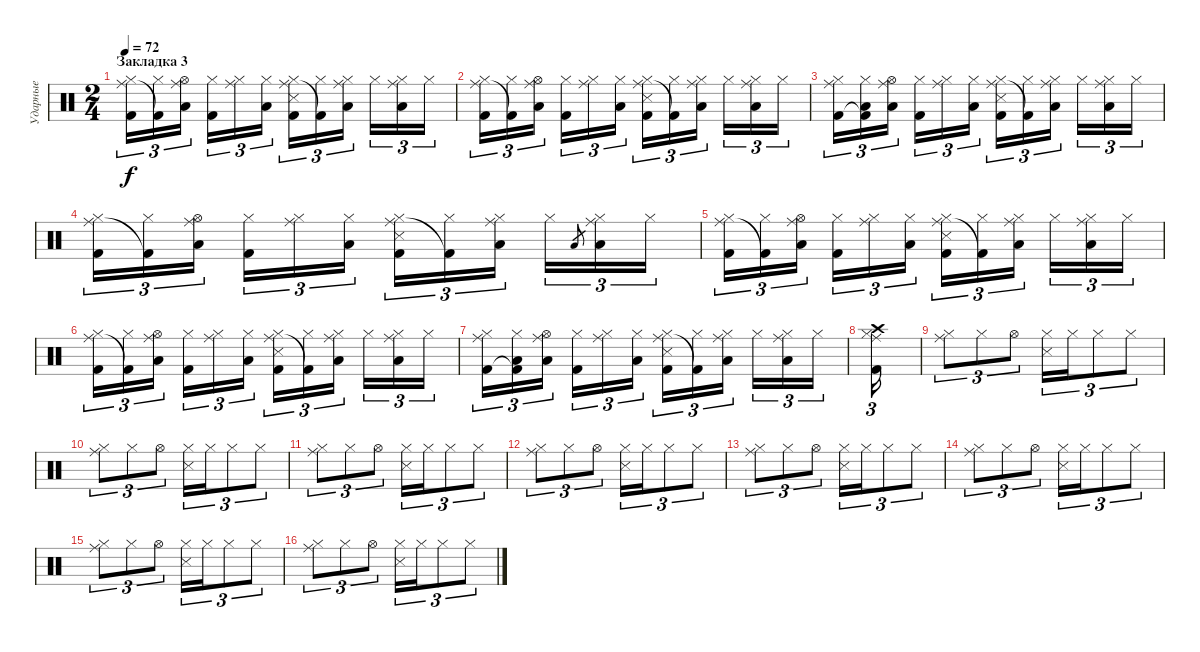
\track ("Ударные" "Ударные") {instrument percussion}
\staff {score}
\articulation defaults
\ts (2 4)
\section ("" "Закладка 3")
\tempo 72
\clef neutral
\ks c
("Hi-Hat (closed)" "Ride (middle)" "Kick (hit) 2").16{tu (3 2) dy f} ("Hi-Hat (closed)" "Kick (hit) 2"{t}).16{tu (3 2)} ("Hi-Hat (open)" "Ride (middle)" "Low Tom (hit)").16{tu (3 2)} ("Hi-Hat (closed)" "Kick (hit) 2").16{tu (3 2)} ("Hi-Hat (closed)" "Ride (middle)").16{tu (3 2)} ("Hi-Hat (closed)" "Low Tom (hit)").16{tu (3 2)} ("Hi-Hat (closed)" "Ride (middle)" "Snare (side stick) 3" "Kick (hit) 2").16{tu (3 2)} ("Hi-Hat (closed)" "Kick (hit) 2"{t}).16{tu (3 2)} ("Hi-Hat (closed)" "Ride (middle)" "Low Tom (hit)").16{tu (3 2)} "Hi-Hat (closed)".16{tu (3 2)} ("Hi-Hat (closed)" "Ride (middle)" "Low Tom (hit)").16{tu (3 2)} "Hi-Hat (closed)".16{tu (3 2)} |
("Hi-Hat (closed)" "Ride (middle)" "Kick (hit) 2").16{tu (3 2)} ("Hi-Hat (closed)" "Kick (hit) 2"{t}).16{tu (3 2)} ("Hi-Hat (open)" "Ride (middle)" "Low Tom (hit)").16{tu (3 2)} ("Hi-Hat (closed)" "Kick (hit) 2").16{tu (3 2)} ("Hi-Hat (closed)" "Ride (middle)").16{tu (3 2)} ("Hi-Hat (closed)" "Low Tom (hit)").16{tu (3 2)} ("Hi-Hat (closed)" "Ride (middle)" "Snare (side stick) 3" "Kick (hit) 2").16{tu (3 2)} ("Hi-Hat (closed)" "Kick (hit) 2"{t}).16{tu (3 2)} ("Hi-Hat (closed)" "Ride (middle)" "Low Tom (hit)").16{tu (3 2)} "Hi-Hat (closed)".16{tu (3 2)} ("Hi-Hat (closed)" "Ride (middle)" "Low Tom (hit)").16{tu (3 2)} "Hi-Hat (closed)".16{tu (3 2)} |
("Hi-Hat (closed)" "Ride (middle)" "Kick (hit) 2").16{tu (3 2)} ("Hi-Hat (closed)" "Low Tom (hit)" "Kick (hit) 2"{t}).16{tu (3 2)} ("Hi-Hat (open)" "Ride (middle)" "Low Tom (hit)").16{tu (3 2)} ("Hi-Hat (closed)" "Kick (hit) 2").16{tu (3 2)} ("Hi-Hat (closed)" "Ride (middle)").16{tu (3 2)} ("Hi-Hat (closed)" "Low Tom (hit)").16{tu (3 2)} ("Hi-Hat (closed)" "Ride (middle)" "Snare (side stick) 3" "Kick (hit) 2").16{tu (3 2)} ("Hi-Hat (closed)" "Kick (hit) 2"{t}).16{tu (3 2)} ("Hi-Hat (closed)" "Ride (middle)" "Low Tom (hit)").16{tu (3 2)} "Hi-Hat (closed)".16{tu (3 2)} ("Hi-Hat (closed)" "Ride (middle)" "Low Tom (hit)").16{tu (3 2)} "Hi-Hat (closed)".16{tu (3 2)} |
("Hi-Hat (closed)" "Ride (middle)" "Kick (hit) 2").16{tu (3 2)} ("Hi-Hat (closed)" "Kick (hit) 2"{t}).16{tu (3 2)} ("Hi-Hat (open)" "Ride (middle)" "Low Tom (hit)").16{tu (3 2)} ("Hi-Hat (closed)" "Kick (hit) 2").16{tu (3 2)} ("Hi-Hat (closed)" "Ride (middle)").16{tu (3 2)} ("Hi-Hat (closed)" "Low Tom (hit)").16{tu (3 2)} ("Hi-Hat (closed)" "Ride (middle)" "Snare (side stick) 3" "Kick (hit) 2").16{tu (3 2)} ("Hi-Hat (closed)" "Kick (hit) 2"{t}).16{tu (3 2)} ("Hi-Hat (closed)" "Ride (middle)" "Low Tom (hit)").16{tu (3 2)} "Hi-Hat (closed)".16{tu (3 2)} "Low Tom (hit)".8{gr} ("Hi-Hat (closed)" "Ride (middle)" "Low Tom (hit)"{tr (24 16)}).16{tu (3 2)} "Hi-Hat (closed)".16{tu (3 2)} |
("Hi-Hat (closed)" "Ride (middle)" "Kick (hit) 2").16{tu (3 2)} ("Hi-Hat (closed)" "Kick (hit) 2"{t}).16{tu (3 2)} ("Hi-Hat (open)" "Ride (middle)" "Low Tom (hit)").16{tu (3 2)} ("Hi-Hat (closed)" "Kick (hit) 2").16{tu (3 2)} ("Hi-Hat (closed)" "Ride (middle)").16{tu (3 2)} ("Hi-Hat (closed)" "Low Tom (hit)").16{tu (3 2)} ("Hi-Hat (closed)" "Ride (middle)" "Snare (side stick) 3" "Kick (hit) 2").16{tu (3 2)} ("Hi-Hat (closed)" "Kick (hit) 2"{t}).16{tu (3 2)} ("Hi-Hat (closed)" "Ride (middle)" "Low Tom (hit)").16{tu (3 2)} "Hi-Hat (closed)".16{tu (3 2)} ("Hi-Hat (closed)" "Ride (middle)" "Low Tom (hit)").16{tu (3 2)} "Hi-Hat (closed)".16{tu (3 2)} |
("Hi-Hat (closed)" "Ride (middle)" "Kick (hit) 2").16{tu (3 2)} ("Hi-Hat (closed)" "Kick (hit) 2"{t}).16{tu (3 2)} ("Hi-Hat (open)" "Ride (middle)" "Low Tom (hit)").16{tu (3 2)} ("Hi-Hat (closed)" "Kick (hit) 2").16{tu (3 2)} ("Hi-Hat (closed)" "Ride (middle)").16{tu (3 2)} ("Hi-Hat (closed)" "Low Tom (hit)").16{tu (3 2)} ("Hi-Hat (closed)" "Ride (middle)" "Snare (side stick) 3" "Kick (hit) 2").16{tu (3 2)} ("Hi-Hat (closed)" "Kick (hit) 2"{t}).16{tu (3 2)} ("Hi-Hat (closed)" "Ride (middle)" "Low Tom (hit)").16{tu (3 2)} "Hi-Hat (closed)".16{tu (3 2)} ("Hi-Hat (closed)" "Ride (middle)" "Low Tom (hit)").16{tu (3 2)} "Hi-Hat (closed)".16{tu (3 2)} |
("Hi-Hat (closed)" "Ride (middle)" "Kick (hit) 2").16{tu (3 2)} ("Hi-Hat (closed)" "Low Tom (hit)" "Kick (hit) 2"{t}).16{tu (3 2)} ("Hi-Hat (open)" "Ride (middle)" "Low Tom (hit)").16{tu (3 2)} ("Hi-Hat (closed)" "Kick (hit) 2").16{tu (3 2)} ("Hi-Hat (closed)" "Ride (middle)").16{tu (3 2)} ("Hi-Hat (closed)" "Low Tom (hit)").16{tu (3 2)} ("Hi-Hat (closed)" "Ride (middle)" "Snare (side stick) 3" "Kick (hit) 2").16{tu (3 2)} ("Hi-Hat (closed)" "Kick (hit) 2"{t}).16{tu (3 2)} ("Hi-Hat (closed)" "Ride (middle)" "Low Tom (hit)").16{tu (3 2)} "Hi-Hat (closed)".16{tu (3 2)} ("Hi-Hat (closed)" "Ride (middle)" "Low Tom (hit)").16{tu (3 2)} "Hi-Hat (closed)".16{tu (3 2)} |
("Hi-Hat (closed)" "Ride (middle)" "Crash high (hit)" "Kick (hit) 2").16{tu (3 2)} |
("Hi-Hat (closed)" "Ride (middle)").8{tu (3 2)} "Hi-Hat (closed)".8{tu (3 2)} "Hi-Hat (open)".8{tu (3 2)} ("Hi-Hat (closed)" "Snare (side stick) 3").16{tu (3 2)} "Hi-Hat (closed)".16{tu (3 2)} "Hi-Hat (closed)".8{tu (3 2)} "Hi-Hat (closed)".8{tu (3 2)} |
("Hi-Hat (closed)" "Ride (middle)").8{tu (3 2)} "Hi-Hat (closed)".8{tu (3 2)} "Hi-Hat (open)".8{tu (3 2)} ("Hi-Hat (closed)" "Snare (side stick) 3").16{tu (3 2)} "Hi-Hat (closed)".16{tu (3 2)} "Hi-Hat (closed)".8{tu (3 2)} "Hi-Hat (closed)".8{tu (3 2)} |
("Hi-Hat (closed)" "Ride (middle)").8{tu (3 2)} "Hi-Hat (closed)".8{tu (3 2)} "Hi-Hat (open)".8{tu (3 2)} ("Hi-Hat (closed)" "Snare (side stick) 3").16{tu (3 2)} "Hi-Hat (closed)".16{tu (3 2)} "Hi-Hat (closed)".8{tu (3 2)} "Hi-Hat (closed)".8{tu (3 2)} |
("Hi-Hat (closed)" "Ride (middle)").8{tu (3 2)} "Hi-Hat (closed)".8{tu (3 2)} "Hi-Hat (open)".8{tu (3 2)} ("Hi-Hat (closed)" "Snare (side stick) 3").16{tu (3 2)} "Hi-Hat (closed)".16{tu (3 2)} "Hi-Hat (closed)".8{tu (3 2)} "Hi-Hat (closed)".8{tu (3 2)} |
("Hi-Hat (closed)" "Ride (middle)").8{tu (3 2)} "Hi-Hat (closed)".8{tu (3 2)} "Hi-Hat (open)".8{tu (3 2)} ("Hi-Hat (closed)" "Snare (side stick) 3").16{tu (3 2)} "Hi-Hat (closed)".16{tu (3 2)} "Hi-Hat (closed)".8{tu (3 2)} "Hi-Hat (closed)".8{tu (3 2)} |
("Hi-Hat (closed)" "Ride (middle)").8{tu (3 2)} "Hi-Hat (closed)".8{tu (3 2)} "Hi-Hat (open)".8{tu (3 2)} ("Hi-Hat (closed)" "Snare (side stick) 3").16{tu (3 2)} "Hi-Hat (closed)".16{tu (3 2)} "Hi-Hat (closed)".8{tu (3 2)} "Hi-Hat (closed)".8{tu (3 2)} |
("Hi-Hat (closed)" "Ride (middle)").8{tu (3 2)} "Hi-Hat (closed)".8{tu (3 2)} "Hi-Hat (open)".8{tu (3 2)} ("Hi-Hat (closed)" "Snare (side stick) 3").16{tu (3 2)} "Hi-Hat (closed)".16{tu (3 2)} "Hi-Hat (closed)".8{tu (3 2)} "Hi-Hat (closed)".8{tu (3 2)} |
("Hi-Hat (closed)" "Ride (middle)").8{tu (3 2)} "Hi-Hat (closed)".8{tu (3 2)} "Hi-Hat (open)".8{tu (3 2)} ("Hi-Hat (closed)" "Snare (side stick) 3").16{tu (3 2)} "Hi-Hat (closed)".16{tu (3 2)} "Hi-Hat (closed)".8{tu (3 2)} "Hi-Hat (closed)".8{tu (3 2)}
